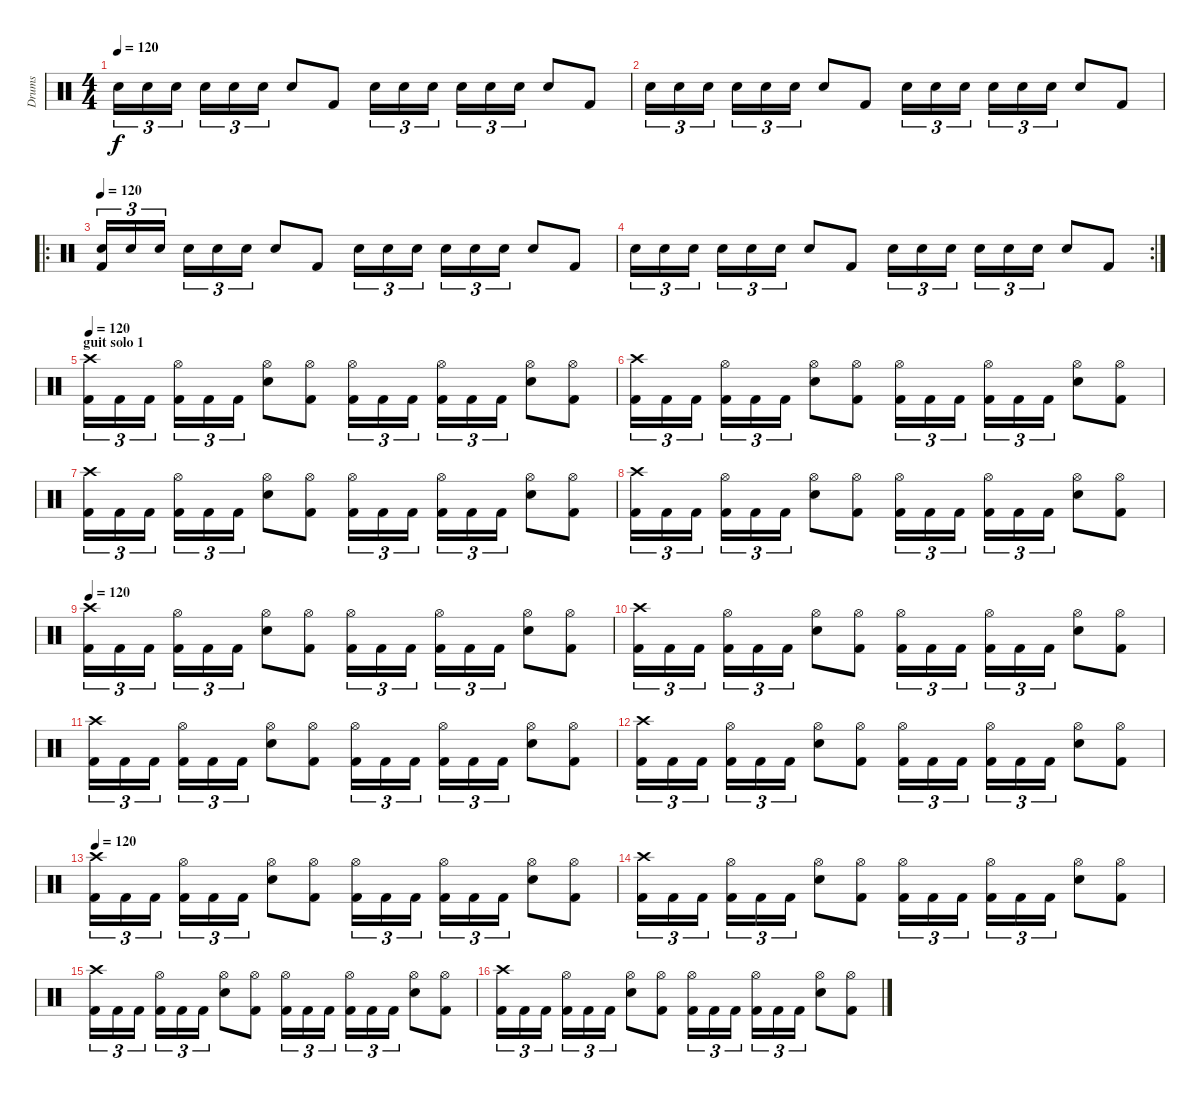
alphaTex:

\track ("Drums" "Drums") {instrument percussion}
\staff {score}
\articulation defaults
\ts (4 4)
\tempo 120
\clef neutral
\ks c "Electric Snare (hit)".16{tu (3 2) dy f} "Electric Snare (hit)".16{tu (3 2)} "Electric Snare (hit)".16{tu (3 2)} "Electric Snare (hit)".16{tu (3 2)} "Electric Snare (hit)".16{tu (3 2)} "Electric Snare (hit)".16{tu (3 2)} "Electric Snare (hit)".8 "Kick (hit) 2".8 "Electric Snare (hit)".16{tu (3 2)} "Electric Snare (hit)".16{tu (3 2)} "Electric Snare (hit)".16{tu (3 2)} "Electric Snare (hit)".16{tu (3 2)} "Electric Snare (hit)".16{tu (3 2)} "Electric Snare (hit)".16{tu (3 2)} "Electric Snare (hit)".8 "Kick (hit) 2".8
|
"Electric Snare (hit)".16{tu (3 2)} "Electric Snare (hit)".16{tu (3 2)} "Electric Snare (hit)".16{tu (3 2)} "Electric Snare (hit)".16{tu (3 2)} "Electric Snare (hit)".16{tu (3 2)} "Electric Snare (hit)".16{tu (3 2)} "Electric Snare (hit)".8 "Kick (hit) 2".8 "Electric Snare (hit)".16{tu (3 2)} "Electric Snare (hit)".16{tu (3 2)} "Electric Snare (hit)".16{tu (3 2)} "Electric Snare (hit)".16{tu (3 2)} "Electric Snare (hit)".16{tu (3 2)} "Electric Snare (hit)".16{tu (3 2)} "Electric Snare (hit)".8 "Kick (hit) 2".8 |
\ro
\tempo 120
("Kick (hit) 2" "Electric Snare (hit)").16{tu (3 2)} "Electric Snare (hit)".16{tu (3 2)} "Electric Snare (hit)".16{tu (3 2)} "Electric Snare (hit)".16{tu (3 2)} "Electric Snare (hit)".16{tu (3 2)} "Electric Snare (hit)".16{tu (3 2)} "Electric Snare (hit)".8 "Kick (hit) 2".8 "Electric Snare (hit)".16{tu (3 2)} "Electric Snare (hit)".16{tu (3 2)} "Electric Snare (hit)".16{tu (3 2)} "Electric Snare (hit)".16{tu (3 2)} "Electric Snare (hit)".16{tu (3 2)} "Electric Snare (hit)".16{tu (3 2)} "Electric Snare (hit)".8 "Kick (hit) 2".8 |
\rc 2 "Electric Snare (hit)".16{tu (3 2)} "Electric Snare (hit)".16{tu (3 2)} "Electric Snare (hit)".16{tu (3 2)} "Electric Snare (hit)".16{tu (3 2)} "Electric Snare (hit)".16{tu (3 2)} "Electric Snare (hit)".16{tu (3 2)} "Electric Snare (hit)".8 "Kick (hit) 2".8 "Electric Snare (hit)".16{tu (3 2)} "Electric Snare (hit)".16{tu (3 2)} "Electric Snare (hit)".16{tu (3 2)} "Electric Snare (hit)".16{tu (3 2)} "Electric Snare (hit)".16{tu (3 2)} "Electric Snare (hit)".16{tu (3 2)} "Electric Snare (hit)".8 "Kick (hit) 2".8
|
\section ("" "guit solo 1")
\tempo 120
("Kick (hit) 2" "Crash high (hit)").16{tu (3 2)} "Kick (hit) 2".16{tu (3 2)} "Kick (hit) 2".16{tu (3 2)} ("Kick (hit) 2" "Hi-Hat (open)").16{tu (3 2)} "Kick (hit) 2".16{tu (3 2)} "Kick (hit) 2".16{tu (3 2)} ("Electric Snare (hit)" "Hi-Hat (open)").8 ("Kick (hit) 2" "Hi-Hat (open)").8 ("Kick (hit) 2" "Hi-Hat (open)").16{tu (3 2)} "Kick (hit) 2".16{tu (3 2)} "Kick (hit) 2".16{tu (3 2)} ("Kick (hit) 2" "Hi-Hat (open)").16{tu (3 2)} "Kick (hit) 2".16{tu (3 2)} "Kick (hit) 2".16{tu (3 2)} ("Electric Snare (hit)" "Hi-Hat (open)").8 ("Kick (hit) 2" "Hi-Hat (open)").8 |
("Kick (hit) 2" "Crash high (hit)").16{tu (3 2)} "Kick (hit) 2".16{tu (3 2)} "Kick (hit) 2".16{tu (3 2)} ("Kick (hit) 2" "Hi-Hat (open)").16{tu (3 2)} "Kick (hit) 2".16{tu (3 2)} "Kick (hit) 2".16{tu (3 2)} ("Electric Snare (hit)" "Hi-Hat (open)").8 ("Kick (hit) 2" "Hi-Hat (open)").8 ("Kick (hit) 2" "Hi-Hat (open)").16{tu (3 2)} "Kick (hit) 2".16{tu (3 2)} "Kick (hit) 2".16{tu (3 2)} ("Kick (hit) 2" "Hi-Hat (open)").16{tu (3 2)} "Kick (hit) 2".16{tu (3 2)} "Kick (hit) 2".16{tu (3 2)} ("Electric Snare (hit)" "Hi-Hat (open)").8 ("Kick (hit) 2" "Hi-Hat (open)").8 |
("Kick (hit) 2" "Crash high (hit)").16{tu (3 2)} "Kick (hit) 2".16{tu (3 2)} "Kick (hit) 2".16{tu (3 2)} ("Kick (hit) 2" "Hi-Hat (open)").16{tu (3 2)} "Kick (hit) 2".16{tu (3 2)} "Kick (hit) 2".16{tu (3 2)} ("Electric Snare (hit)" "Hi-Hat (open)").8 ("Kick (hit) 2" "Hi-Hat (open)").8 ("Kick (hit) 2" "Hi-Hat (open)").16{tu (3 2)} "Kick (hit) 2".16{tu (3 2)} "Kick (hit) 2".16{tu (3 2)} ("Kick (hit) 2" "Hi-Hat (open)").16{tu (3 2)} "Kick (hit) 2".16{tu (3 2)} "Kick (hit) 2".16{tu (3 2)} ("Electric Snare (hit)" "Hi-Hat (open)").8 ("Kick (hit) 2" "Hi-Hat (open)").8 |
("Kick (hit) 2" "Crash high (hit)").16{tu (3 2)} "Kick (hit) 2".16{tu (3 2)} "Kick (hit) 2".16{tu (3 2)} ("Kick (hit) 2" "Hi-Hat (open)").16{tu (3 2)} "Kick (hit) 2".16{tu (3 2)} "Kick (hit) 2".16{tu (3 2)} ("Electric Snare (hit)" "Hi-Hat (open)").8 ("Kick (hit) 2" "Hi-Hat (open)").8 ("Kick (hit) 2" "Hi-Hat (open)").16{tu (3 2)} "Kick (hit) 2".16{tu (3 2)} "Kick (hit) 2".16{tu (3 2)} ("Kick (hit) 2" "Hi-Hat (open)").16{tu (3 2)} "Kick (hit) 2".16{tu (3 2)} "Kick (hit) 2".16{tu (3 2)} ("Electric Snare (hit)" "Hi-Hat (open)").8 ("Kick (hit) 2" "Hi-Hat (open)").8 |
\tempo 120
("Kick (hit) 2" "Crash high (hit)").16{tu (3 2)} "Kick (hit) 2".16{tu (3 2)} "Kick (hit) 2".16{tu (3 2)} ("Kick (hit) 2" "Hi-Hat (open)").16{tu (3 2)} "Kick (hit) 2".16{tu (3 2)} "Kick (hit) 2".16{tu (3 2)} ("Electric Snare (hit)" "Hi-Hat (open)").8 ("Kick (hit) 2" "Hi-Hat (open)").8 ("Kick (hit) 2" "Hi-Hat (open)").16{tu (3 2)} "Kick (hit) 2".16{tu (3 2)} "Kick (hit) 2".16{tu (3 2)} ("Kick (hit) 2" "Hi-Hat (open)").16{tu (3 2)} "Kick (hit) 2".16{tu (3 2)} "Kick (hit) 2".16{tu (3 2)} ("Electric Snare (hit)" "Hi-Hat (open)").8 ("Kick (hit) 2" "Hi-Hat (open)").8 |
("Kick (hit) 2" "Crash high (hit)").16{tu (3 2)} "Kick (hit) 2".16{tu (3 2)} "Kick (hit) 2".16{tu (3 2)} ("Kick (hit) 2" "Hi-Hat (open)").16{tu (3 2)} "Kick (hit) 2".16{tu (3 2)} "Kick (hit) 2".16{tu (3 2)} ("Electric Snare (hit)" "Hi-Hat (open)").8 ("Kick (hit) 2" "Hi-Hat (open)").8 ("Kick (hit) 2" "Hi-Hat (open)").16{tu (3 2)} "Kick (hit) 2".16{tu (3 2)} "Kick (hit) 2".16{tu (3 2)} ("Kick (hit) 2" "Hi-Hat (open)").16{tu (3 2)} "Kick (hit) 2".16{tu (3 2)} "Kick (hit) 2".16{tu (3 2)} ("Electric Snare (hit)" "Hi-Hat (open)").8 ("Kick (hit) 2" "Hi-Hat (open)").8 |
("Kick (hit) 2" "Crash high (hit)").16{tu (3 2)} "Kick (hit) 2".16{tu (3 2)} "Kick (hit) 2".16{tu (3 2)} ("Kick (hit) 2" "Hi-Hat (open)").16{tu (3 2)} "Kick (hit) 2".16{tu (3 2)} "Kick (hit) 2".16{tu (3 2)} ("Electric Snare (hit)" "Hi-Hat (open)").8 ("Kick (hit) 2" "Hi-Hat (open)").8 ("Kick (hit) 2" "Hi-Hat (open)").16{tu (3 2)} "Kick (hit) 2".16{tu (3 2)} "Kick (hit) 2".16{tu (3 2)} ("Kick (hit) 2" "Hi-Hat (open)").16{tu (3 2)} "Kick (hit) 2".16{tu (3 2)} "Kick (hit) 2".16{tu (3 2)} ("Electric Snare (hit)" "Hi-Hat (open)").8 ("Kick (hit) 2" "Hi-Hat (open)").8 |
("Kick (hit) 2" "Crash high (hit)").16{tu (3 2)} "Kick (hit) 2".16{tu (3 2)} "Kick (hit) 2".16{tu (3 2)} ("Kick (hit) 2" "Hi-Hat (open)").16{tu (3 2)} "Kick (hit) 2".16{tu (3 2)} "Kick (hit) 2".16{tu (3 2)} ("Electric Snare (hit)" "Hi-Hat (open)").8 ("Kick (hit) 2" "Hi-Hat (open)").8 ("Kick (hit) 2" "Hi-Hat (open)").16{tu (3 2)} "Kick (hit) 2".16{tu (3 2)} "Kick (hit) 2".16{tu (3 2)} ("Kick (hit) 2" "Hi-Hat (open)").16{tu (3 2)} "Kick (hit) 2".16{tu (3 2)} "Kick (hit) 2".16{tu (3 2)} ("Electric Snare (hit)" "Hi-Hat (open)").8 ("Kick (hit) 2" "Hi-Hat (open)").8 |
\tempo 120
("Kick (hit) 2" "Crash high (hit)").16{tu (3 2)} "Kick (hit) 2".16{tu (3 2)} "Kick (hit) 2".16{tu (3 2)} ("Kick (hit) 2" "Hi-Hat (open)").16{tu (3 2)} "Kick (hit) 2".16{tu (3 2)} "Kick (hit) 2".16{tu (3 2)} ("Electric Snare (hit)" "Hi-Hat (open)").8 ("Kick (hit) 2" "Hi-Hat (open)").8 ("Kick (hit) 2" "Hi-Hat (open)").16{tu (3 2)} "Kick (hit) 2".16{tu (3 2)} "Kick (hit) 2".16{tu (3 2)} ("Kick (hit) 2" "Hi-Hat (open)").16{tu (3 2)} "Kick (hit) 2".16{tu (3 2)} "Kick (hit) 2".16{tu (3 2)} ("Electric Snare (hit)" "Hi-Hat (open)").8 ("Kick (hit) 2" "Hi-Hat (open)").8 |
("Kick (hit) 2" "Crash high (hit)").16{tu (3 2)} "Kick (hit) 2".16{tu (3 2)} "Kick (hit) 2".16{tu (3 2)} ("Kick (hit) 2" "Hi-Hat (open)").16{tu (3 2)} "Kick (hit) 2".16{tu (3 2)} "Kick (hit) 2".16{tu (3 2)} ("Electric Snare (hit)" "Hi-Hat (open)").8 ("Kick (hit) 2" "Hi-Hat (open)").8 ("Kick (hit) 2" "Hi-Hat (open)").16{tu (3 2)} "Kick (hit) 2".16{tu (3 2)} "Kick (hit) 2".16{tu (3 2)} ("Kick (hit) 2" "Hi-Hat (open)").16{tu (3 2)} "Kick (hit) 2".16{tu (3 2)} "Kick (hit) 2".16{tu (3 2)} ("Electric Snare (hit)" "Hi-Hat (open)").8 ("Kick (hit) 2" "Hi-Hat (open)").8 |
("Kick (hit) 2" "Crash high (hit)").16{tu (3 2)} "Kick (hit) 2".16{tu (3 2)} "Kick (hit) 2".16{tu (3 2)} ("Kick (hit) 2" "Hi-Hat (open)").16{tu (3 2)} "Kick (hit) 2".16{tu (3 2)} "Kick (hit) 2".16{tu (3 2)} ("Electric Snare (hit)" "Hi-Hat (open)").8 ("Kick (hit) 2" "Hi-Hat (open)").8 ("Kick (hit) 2" "Hi-Hat (open)").16{tu (3 2)} "Kick (hit) 2".16{tu (3 2)} "Kick (hit) 2".16{tu (3 2)} ("Kick (hit) 2" "Hi-Hat (open)").16{tu (3 2)} "Kick (hit) 2".16{tu (3 2)} "Kick (hit) 2".16{tu (3 2)} ("Electric Snare (hit)" "Hi-Hat (open)").8 ("Kick (hit) 2" "Hi-Hat (open)").8 |
("Kick (hit) 2" "Crash high (hit)").16{tu (3 2)} "Kick (hit) 2".16{tu (3 2)} "Kick (hit) 2".16{tu (3 2)} ("Kick (hit) 2" "Hi-Hat (open)").16{tu (3 2)} "Kick (hit) 2".16{tu (3 2)} "Kick (hit) 2".16{tu (3 2)} ("Electric Snare (hit)" "Hi-Hat (open)").8 ("Kick (hit) 2" "Hi-Hat (open)").8 ("Kick (hit) 2" "Hi-Hat (open)").16{tu (3 2)} "Kick (hit) 2".16{tu (3 2)} "Kick (hit) 2".16{tu (3 2)} ("Kick (hit) 2" "Hi-Hat (open)").16{tu (3 2)} "Kick (hit) 2".16{tu (3 2)} "Kick (hit) 2".16{tu (3 2)} ("Electric Snare (hit)" "Hi-Hat (open)").8 ("Kick (hit) 2" "Hi-Hat (open)").8
